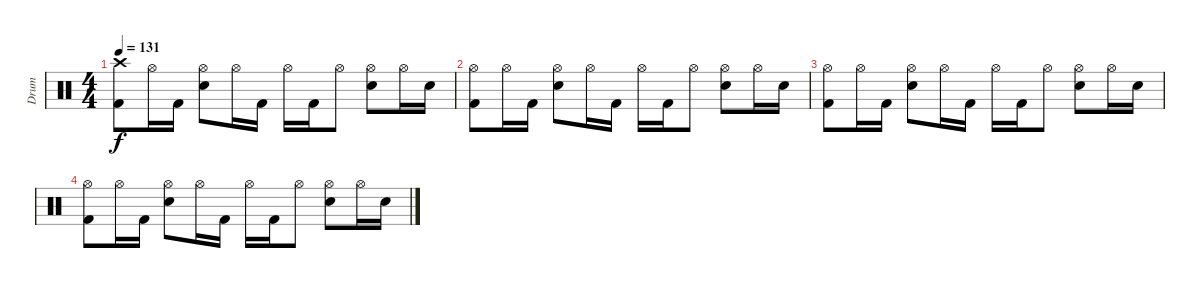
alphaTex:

\track ("Drum" "Drum") {instrument percussion}
\staff {score}
\articulation defaults
\ts (4 4)
\tempo 131
\clef neutral
\ks c
("Crash high (hit)" "Kick (hit) 2").8{dy f} "Hi-Hat (open)".16 "Kick (hit) 2".16 ("Hi-Hat (open)" "Snare (hit) 2").8 "Hi-Hat (open)".16 "Kick (hit) 2".16 "Hi-Hat (open)".16 "Kick (hit) 2".16 "Hi-Hat (open)".8 ("Hi-Hat (open)" "Snare (hit) 2").8 "Hi-Hat (open)".16 "Snare (hit) 2".16 |
("Hi-Hat (open)" "Kick (hit) 2").8 "Hi-Hat (open)".16 "Kick (hit) 2".16 ("Hi-Hat (open)" "Snare (hit) 2").8 "Hi-Hat (open)".16 "Kick (hit) 2".16 "Hi-Hat (open)".16 "Kick (hit) 2".16 "Hi-Hat (open)".8 ("Hi-Hat (open)" "Snare (hit) 2").8 "Hi-Hat (open)".16 "Snare (hit) 2".16 |
("Hi-Hat (open)" "Kick (hit) 2").8 "Hi-Hat (open)".16 "Kick (hit) 2".16 ("Hi-Hat (open)" "Snare (hit) 2").8 "Hi-Hat (open)".16 "Kick (hit) 2".16 "Hi-Hat (open)".16 "Kick (hit) 2".16 "Hi-Hat (open)".8 ("Hi-Hat (open)" "Snare (hit) 2").8 "Hi-Hat (open)".16 "Snare (hit) 2".16 |
("Hi-Hat (open)" "Kick (hit) 2").8 "Hi-Hat (open)".16 "Kick (hit) 2".16 ("Hi-Hat (open)" "Snare (hit) 2").8 "Hi-Hat (open)".16 "Kick (hit) 2".16 "Hi-Hat (open)".16 "Kick (hit) 2".16 "Hi-Hat (open)".8 ("Hi-Hat (open)" "Snare (hit) 2").8 "Hi-Hat (open)".16 "Snare (hit) 2".16
